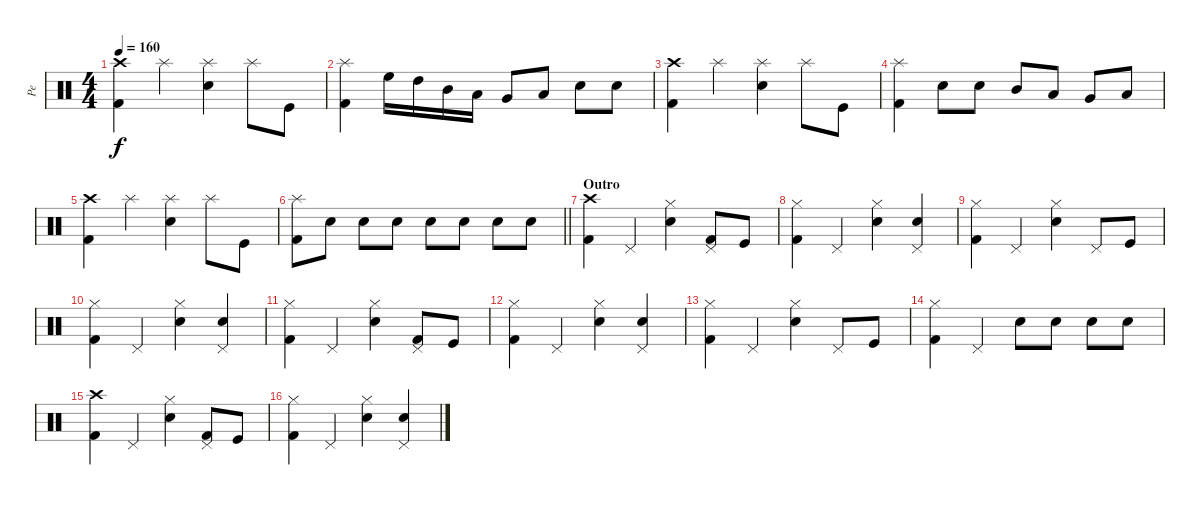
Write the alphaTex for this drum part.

\track ("Pe" "Pe") {instrument percussion}
\staff {score}
\articulation defaults
\ts (4 4)
\tempo 160
\clef neutral
\ks c
("Kick (hit) 2" "Crash high (hit)").4{dy f} "Splash (hit)".4 ("Electric Snare (hit)" "Splash (hit)").4 "Splash (hit)".8 "Kick (hit)".8 |
("Kick (hit) 2" "Splash (hit)").4 "High Floor Tom (hit)".16 "High Tom (hit)".16 "Mid Tom (hit)".16 "Low Tom (hit)".16 "Very Low Tom (hit)".8 "Low Floor Tom (hit)".8 "Electric Snare (hit)".8 "Electric Snare (hit)".8 |
("Kick (hit) 2" "Crash high (hit)").4 "Splash (hit)".4 ("Electric Snare (hit)" "Splash (hit)").4 "Splash (hit)".8 "Kick (hit)".8 |
("Kick (hit) 2" "Splash (hit)").4 "Electric Snare (hit)".8 "Electric Snare (hit)".8 "Mid Tom (hit)".8 "Low Tom (hit)".8 "Very Low Tom (hit)".8 "Low Floor Tom (hit)".8 |
("Kick (hit) 2" "Crash high (hit)").4 "Splash (hit)".4 ("Electric Snare (hit)" "Splash (hit)").4 "Splash (hit)".8 "Kick (hit)".8 |
\barLineRight lightlight
("Kick (hit) 2" "Splash (hit)").8 "Electric Snare (hit)".8 "Electric Snare (hit)".8 "Electric Snare (hit)".8 "Electric Snare (hit)".8 "Electric Snare (hit)".8 "Electric Snare (hit)".8 "Electric Snare (hit)".8 |
\section ("" "Outro")
("Kick (hit) 2" "Crash high (hit)").4 "Pedal Hi-Hat (hit)".4 ("Electric Snare (hit)" "Hi-Hat (closed)").4 ("Kick (hit) 2" "Pedal Hi-Hat (hit)").8 "Kick (hit)".8 |
("Kick (hit) 2" "Hi-Hat (closed)").4 "Pedal Hi-Hat (hit)".4 ("Electric Snare (hit)" "Hi-Hat (closed)").4 ("Electric Snare (hit)" "Pedal Hi-Hat (hit)").4 |
("Kick (hit) 2" "Hi-Hat (closed)").4 "Pedal Hi-Hat (hit)".4 ("Electric Snare (hit)" "Hi-Hat (closed)").4 "Pedal Hi-Hat (hit)".8 "Kick (hit)".8 |
("Kick (hit) 2" "Hi-Hat (closed)").4 "Pedal Hi-Hat (hit)".4 ("Electric Snare (hit)" "Hi-Hat (closed)").4 ("Electric Snare (hit)" "Pedal Hi-Hat (hit)").4 |
("Kick (hit) 2" "Hi-Hat (closed)").4 "Pedal Hi-Hat (hit)".4 ("Electric Snare (hit)" "Hi-Hat (closed)").4 ("Kick (hit) 2" "Pedal Hi-Hat (hit)").8 "Kick (hit)".8 |
("Kick (hit) 2" "Hi-Hat (closed)").4 "Pedal Hi-Hat (hit)".4 ("Electric Snare (hit)" "Hi-Hat (closed)").4 ("Electric Snare (hit)" "Pedal Hi-Hat (hit)").4 |
("Kick (hit) 2" "Hi-Hat (closed)").4 "Pedal Hi-Hat (hit)".4 ("Electric Snare (hit)" "Hi-Hat (closed)").4 "Pedal Hi-Hat (hit)".8 "Kick (hit)".8 |
("Kick (hit) 2" "Hi-Hat (closed)").4 "Pedal Hi-Hat (hit)".4 "Electric Snare (hit)".8 "Electric Snare (hit)".8 "Electric Snare (hit)".8 "Electric Snare (hit)".8 |
("Kick (hit) 2" "Crash high (hit)").4 "Pedal Hi-Hat (hit)".4 ("Electric Snare (hit)" "Hi-Hat (closed)").4 ("Kick (hit) 2" "Pedal Hi-Hat (hit)").8 "Kick (hit)".8 |
("Kick (hit) 2" "Hi-Hat (closed)").4 "Pedal Hi-Hat (hit)".4 ("Electric Snare (hit)" "Hi-Hat (closed)").4 ("Electric Snare (hit)" "Pedal Hi-Hat (hit)").4
